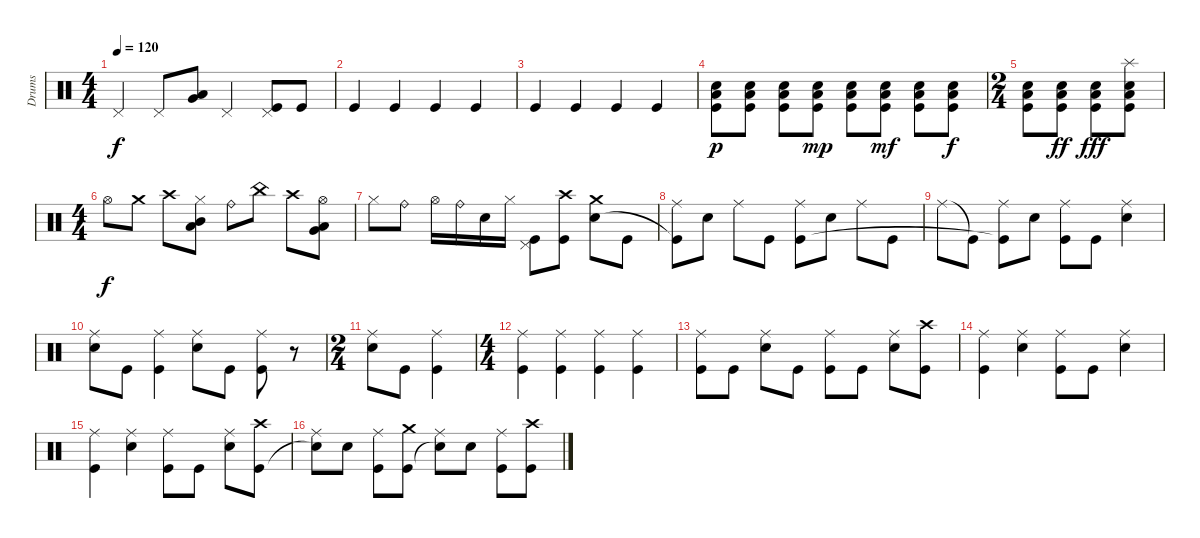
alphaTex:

\track ("Drums" "Drums") {instrument percussion}
\staff {score}
\articulation defaults
\ts (4 4)
\tempo 120
\clef neutral
\ks c "Pedal Hi-Hat (hit)".4{dy f} "Pedal Hi-Hat (hit)".8
("Very Low Tom (hit)" "Low Floor Tom (hit)").8 "Pedal Hi-Hat (hit)".4 ("Pedal Hi-Hat (hit)" "Kick (hit)").8 "Kick (hit)".8 |
"Kick (hit)".4 "Kick (hit)".4 "Kick (hit)".4 "Kick (hit)".4 |
"Kick (hit)".4 "Kick (hit)".4 "Kick (hit)".4 "Kick (hit)".4 |
("Electric Snare (hit)" "Low Floor Tom (hit)" "Kick (hit)").8{dy p} ("Electric Snare (hit)" "Low Floor Tom (hit)" "Kick (hit)").8 ("Electric Snare (hit)" "Low Floor Tom (hit)" "Kick (hit)").8 ("Electric Snare (hit)" "Low Floor Tom (hit)" "Kick (hit)").8{dy mp} ("Electric Snare (hit)" "Low Floor Tom (hit)" "Kick (hit)").8 ("Electric Snare (hit)" "Low Floor Tom (hit)" "Kick (hit)").8{dy mf} ("Electric Snare (hit)" "Low Floor Tom (hit)" "Kick (hit)").8 ("Electric Snare (hit)" "Low Floor Tom (hit)" "Kick (hit)").8{dy f} |
\ts (2 4)
("Electric Snare (hit)" "Low Floor Tom (hit)" "Kick (hit)").8 ("Electric Snare (hit)" "Low Floor Tom (hit)" "Kick (hit)").8{dy ff} ("Electric Snare (hit)" "Low Floor Tom (hit)" "Kick (hit)").8{dy fff} ("Splash (hit)" "Electric Snare (hit)" "Low Floor Tom (hit)" "Kick (hit)").8 |
\ts (4 4)
"Hi-Hat (open)".8{dy f} "Crash medium (hit)".8 "Crash high (hit)".8 ("Hi-Hat (closed)" "Mid Tom (hit)" "Low Tom (hit)").8 "Ride (bell)".8 "China (hit)".8 "Crash high (hit)".8 ("Hi-Hat (open)" "Low Tom (hit)" "Very Low Tom (hit)").8 |
"Hi-Hat (closed)".8 "Ride (bell)".8 "Hi-Hat (open)".16 "Ride (bell)".16 "Electric Snare (hit)".16 "Hi-Hat (closed)".16 ("Pedal Hi-Hat (hit)" "Kick (hit)").8 ("Crash high (hit)" "Kick (hit)").8 ("Crash medium (hit)" "Electric Snare (hit)").8 "Kick (hit)".8 |
("Ride (middle)" "Kick (hit)"{t}).8 "Electric Snare (hit)".8 "Ride (middle)".8 "Kick (hit)".8 ("Ride (middle)" "Kick (hit)").8 "Electric Snare (hit)".8 "Ride (middle)".8 "Kick (hit)".8 |
"Ride (middle)".8 "Kick (hit)"{t}.8 ("Ride (middle)" "Kick (hit)"{t}).8 "Electric Snare (hit)".8 ("Ride (middle)" "Kick (hit)").8 "Kick (hit)".8 ("Ride (middle)" "Electric Snare (hit)").4 |
("Ride (middle)" "Electric Snare (hit)").8 "Kick (hit)".8 ("Ride (middle)" "Kick (hit)").4 ("Ride (middle)" "Electric Snare (hit)").8 "Kick (hit)".8 ("Ride (middle)" "Kick (hit)").8 r.8 |
\ts (2 4)
("Ride (middle)" "Electric Snare (hit)").8 "Kick (hit)".8 ("Ride (middle)" "Kick (hit)").4 |
\ts (4 4)
("Ride (middle)" "Kick (hit)").4 ("Ride (middle)" "Kick (hit)").4 ("Ride (middle)" "Kick (hit)").4 ("Ride (middle)" "Kick (hit)").4 |
("Ride (middle)" "Kick (hit)").8 "Kick (hit)".8 ("Ride (middle)" "Electric Snare (hit)").8 "Kick (hit)".8 ("Ride (middle)" "Kick (hit)").8 "Kick (hit)".8 ("Ride (middle)" "Electric Snare (hit)").8 ("Crash high (hit)" "Kick (hit)").8 |
("Ride (middle)" "Kick (hit)").4 ("Ride (middle)" "Electric Snare (hit)").4 ("Ride (middle)" "Kick (hit)").8 "Kick (hit)".8 ("Ride (middle)" "Electric Snare (hit)").4 |
("Ride (middle)" "Kick (hit)").4 ("Ride (middle)" "Electric Snare (hit)").4 ("Ride (middle)" "Kick (hit)").8 "Kick (hit)".8 ("Ride (middle)" "Electric Snare (hit)").8 ("Crash high (hit)" "Kick (hit)").8 |
("Ride (middle)" "Snare (hit)"{t}).8 "Electric Snare (hit)".8 ("Ride (middle)" "Kick (hit)").8 ("Crash medium (hit)" "Kick (hit)").8 ("Ride (middle)" "Snare (hit)"{t}).8 "Electric Snare (hit)".8 ("Ride (middle)" "Kick (hit)").8 ("Crash high (hit)" "Kick (hit)").8
